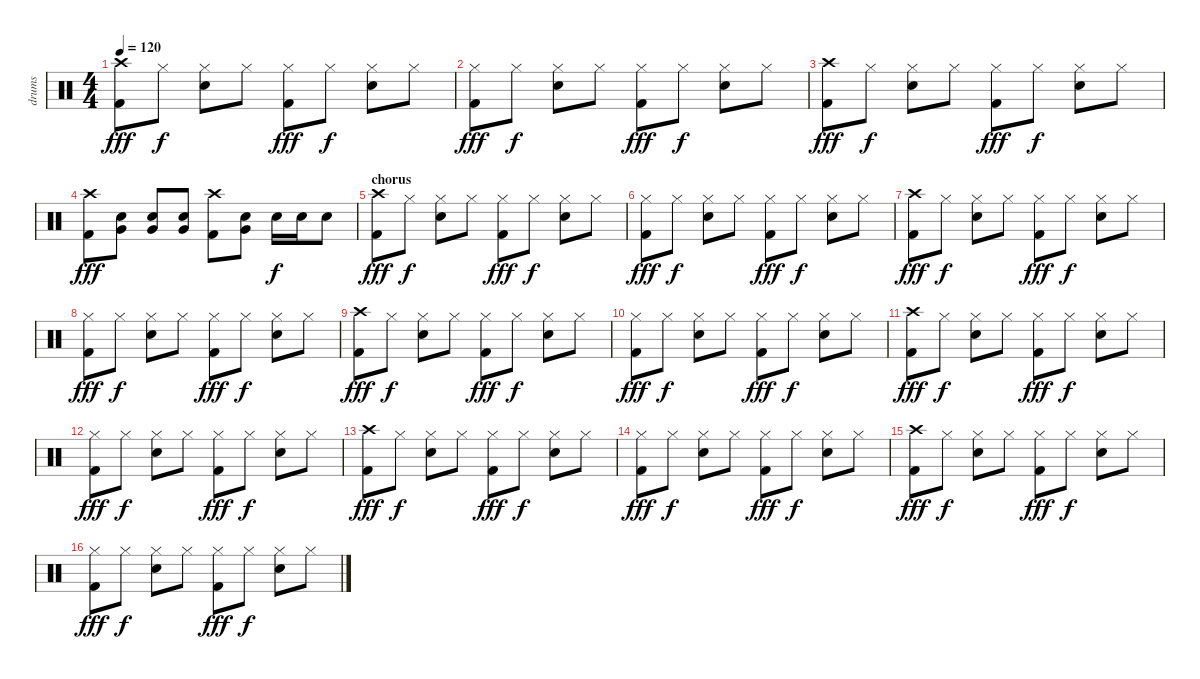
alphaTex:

\track ("drums" "drums") {instrument percussion}
\staff {score}
\articulation defaults
\ts (4 4)
\tempo 120
\clef neutral
\ks c
("Crash high (hit)" "Kick (hit) 2").8{dy fff} "Hi-Hat (closed)".8{dy f} ("Hi-Hat (closed)" "Snare (hit) 2").8 "Hi-Hat (closed)".8 ("Hi-Hat (closed)" "Kick (hit) 2").8{dy fff} "Hi-Hat (closed)".8{dy f} ("Hi-Hat (closed)" "Snare (hit) 2").8 "Hi-Hat (closed)".8 |
("Hi-Hat (closed)" "Kick (hit) 2").8{dy fff} "Hi-Hat (closed)".8{dy f} ("Hi-Hat (closed)" "Snare (hit) 2").8 "Hi-Hat (closed)".8 ("Hi-Hat (closed)" "Kick (hit) 2").8{dy fff} "Hi-Hat (closed)".8{dy f} ("Hi-Hat (closed)" "Snare (hit) 2").8 "Hi-Hat (closed)".8 |
("Crash high (hit)" "Kick (hit) 2").8{dy fff} "Hi-Hat (closed)".8{dy f} ("Hi-Hat (closed)" "Snare (hit) 2").8 "Hi-Hat (closed)".8 ("Hi-Hat (closed)" "Kick (hit) 2").8{dy fff} "Hi-Hat (closed)".8{dy f} ("Hi-Hat (closed)" "Snare (hit) 2").8 "Hi-Hat (closed)".8 |
("Crash high (hit)" "Kick (hit) 2").8{dy fff} ("Very Low Tom (hit)" "Snare (hit) 2").8 ("Very Low Tom (hit)" "Snare (hit) 2").8 ("Very Low Tom (hit)" "Snare (hit) 2").8 ("Crash high (hit)" "Kick (hit) 2").8 ("Very Low Tom (hit)" "Snare (hit) 2").8 "Snare (hit) 2".16{dy f} "Snare (hit) 2".16 "Snare (hit) 2".8 |
\section ("" "chorus")
("Crash high (hit)" "Kick (hit) 2").8{dy fff} "Hi-Hat (closed)".8{dy f} ("Hi-Hat (closed)" "Snare (hit) 2").8 "Hi-Hat (closed)".8 ("Hi-Hat (closed)" "Kick (hit) 2").8{dy fff} "Hi-Hat (closed)".8{dy f} ("Hi-Hat (closed)" "Snare (hit) 2").8 "Hi-Hat (closed)".8 |
("Hi-Hat (closed)" "Kick (hit) 2").8{dy fff} "Hi-Hat (closed)".8{dy f} ("Hi-Hat (closed)" "Snare (hit) 2").8 "Hi-Hat (closed)".8 ("Hi-Hat (closed)" "Kick (hit) 2").8{dy fff} "Hi-Hat (closed)".8{dy f} ("Hi-Hat (closed)" "Snare (hit) 2").8 "Hi-Hat (closed)".8 |
("Crash high (hit)" "Kick (hit) 2").8{dy fff} "Hi-Hat (closed)".8{dy f} ("Hi-Hat (closed)" "Snare (hit) 2").8 "Hi-Hat (closed)".8 ("Hi-Hat (closed)" "Kick (hit) 2").8{dy fff} "Hi-Hat (closed)".8{dy f} ("Hi-Hat (closed)" "Snare (hit) 2").8 "Hi-Hat (closed)".8 |
("Hi-Hat (closed)" "Kick (hit) 2").8{dy fff} "Hi-Hat (closed)".8{dy f} ("Hi-Hat (closed)" "Snare (hit) 2").8 "Hi-Hat (closed)".8 ("Hi-Hat (closed)" "Kick (hit) 2").8{dy fff} "Hi-Hat (closed)".8{dy f} ("Hi-Hat (closed)" "Snare (hit) 2").8 "Hi-Hat (closed)".8 |
("Crash high (hit)" "Kick (hit) 2").8{dy fff} "Hi-Hat (closed)".8{dy f} ("Hi-Hat (closed)" "Snare (hit) 2").8 "Hi-Hat (closed)".8 ("Hi-Hat (closed)" "Kick (hit) 2").8{dy fff} "Hi-Hat (closed)".8{dy f} ("Hi-Hat (closed)" "Snare (hit) 2").8 "Hi-Hat (closed)".8 |
("Hi-Hat (closed)" "Kick (hit) 2").8{dy fff} "Hi-Hat (closed)".8{dy f} ("Hi-Hat (closed)" "Snare (hit) 2").8 "Hi-Hat (closed)".8 ("Hi-Hat (closed)" "Kick (hit) 2").8{dy fff} "Hi-Hat (closed)".8{dy f} ("Hi-Hat (closed)" "Snare (hit) 2").8 "Hi-Hat (closed)".8 |
("Crash high (hit)" "Kick (hit) 2").8{dy fff} "Hi-Hat (closed)".8{dy f} ("Hi-Hat (closed)" "Snare (hit) 2").8 "Hi-Hat (closed)".8 ("Hi-Hat (closed)" "Kick (hit) 2").8{dy fff} "Hi-Hat (closed)".8{dy f} ("Hi-Hat (closed)" "Snare (hit) 2").8 "Hi-Hat (closed)".8 |
("Hi-Hat (closed)" "Kick (hit) 2").8{dy fff} "Hi-Hat (closed)".8{dy f} ("Hi-Hat (closed)" "Snare (hit) 2").8 "Hi-Hat (closed)".8 ("Hi-Hat (closed)" "Kick (hit) 2").8{dy fff} "Hi-Hat (closed)".8{dy f} ("Hi-Hat (closed)" "Snare (hit) 2").8 "Hi-Hat (closed)".8 |
("Crash high (hit)" "Kick (hit) 2").8{dy fff} "Hi-Hat (closed)".8{dy f} ("Hi-Hat (closed)" "Snare (hit) 2").8 "Hi-Hat (closed)".8 ("Hi-Hat (closed)" "Kick (hit) 2").8{dy fff} "Hi-Hat (closed)".8{dy f} ("Hi-Hat (closed)" "Snare (hit) 2").8 "Hi-Hat (closed)".8 |
("Hi-Hat (closed)" "Kick (hit) 2").8{dy fff} "Hi-Hat (closed)".8{dy f} ("Hi-Hat (closed)" "Snare (hit) 2").8 "Hi-Hat (closed)".8 ("Hi-Hat (closed)" "Kick (hit) 2").8{dy fff} "Hi-Hat (closed)".8{dy f} ("Hi-Hat (closed)" "Snare (hit) 2").8 "Hi-Hat (closed)".8 |
("Crash high (hit)" "Kick (hit) 2").8{dy fff} "Hi-Hat (closed)".8{dy f} ("Hi-Hat (closed)" "Snare (hit) 2").8 "Hi-Hat (closed)".8 ("Hi-Hat (closed)" "Kick (hit) 2").8{dy fff} "Hi-Hat (closed)".8{dy f} ("Hi-Hat (closed)" "Snare (hit) 2").8 "Hi-Hat (closed)".8 |
("Hi-Hat (closed)" "Kick (hit) 2").8{dy fff} "Hi-Hat (closed)".8{dy f} ("Hi-Hat (closed)" "Snare (hit) 2").8 "Hi-Hat (closed)".8 ("Hi-Hat (closed)" "Kick (hit) 2").8{dy fff} "Hi-Hat (closed)".8{dy f} ("Hi-Hat (closed)" "Snare (hit) 2").8 "Hi-Hat (closed)".8
